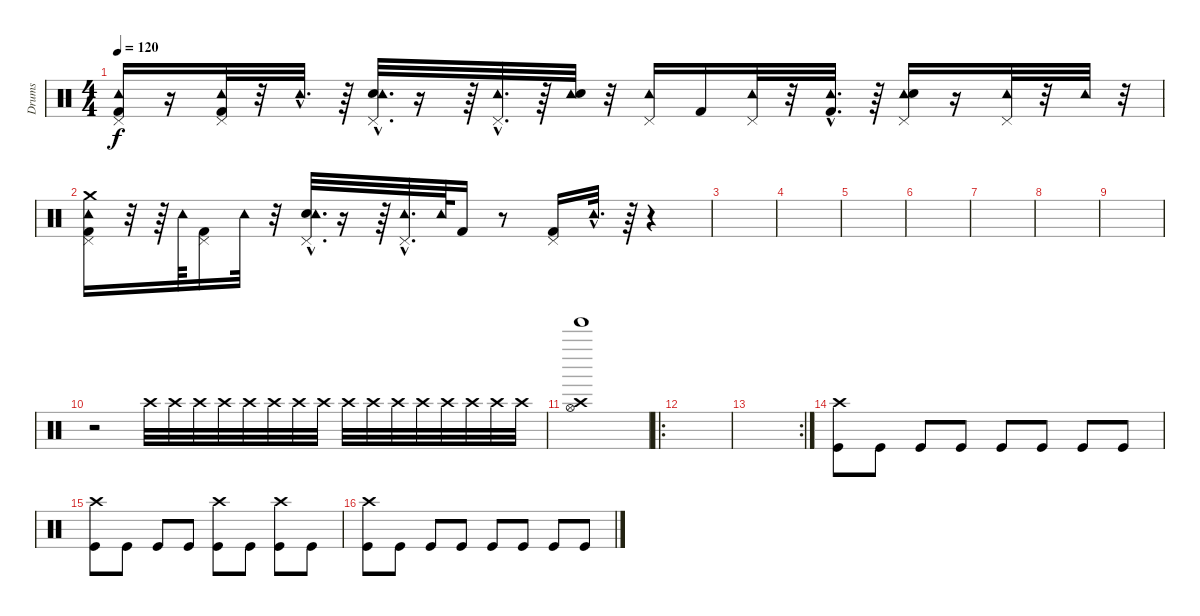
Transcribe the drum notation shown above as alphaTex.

\track ("Drums" "Drums") {instrument percussion}
\staff {score}
\articulation defaults
\ts (4 4)
\tempo 120
\clef neutral
\ks c
("Kick (hit) 2" "Pedal Hi-Hat (hit)" "Tambourine (hit)").16{dy f} r.16 ("Kick (hit) 2" "Pedal Hi-Hat (hit)" "Tambourine (hit)").32 r.32 "Tambourine (hit)"{hac}.32{d} r.64 ("Electric Snare (hit)"{hac} "Pedal Hi-Hat (hit)"{hac} "Tambourine (hit)"{hac}).32{d} r.16 r.64 ("Pedal Hi-Hat (hit)"{hac} "Tambourine (hit)"{hac}).32{d} r.64 ("Tambourine (hit)" "Electric Snare (hit)").32 r.32 ("Pedal Hi-Hat (hit)" "Tambourine (hit)").16 "Kick (hit) 2".16 ("Pedal Hi-Hat (hit)" "Tambourine (hit)").32 r.32 ("Tambourine (hit)"{hac} "Kick (hit) 2"{hac}).32{d} r.64 ("Pedal Hi-Hat (hit)" "Tambourine (hit)" "Electric Snare (hit)").16 r.16 ("Pedal Hi-Hat (hit)" "Tambourine (hit)").32 r.32 "Tambourine (hit)".32 r.32 |
("Tambourine (hit)" "Pedal Hi-Hat (hit)" "Kick (hit) 2" "Crash medium (hit)").16 r.32 r.64 "Tambourine (hit)".64 ("Kick (hit) 2" "Pedal Hi-Hat (hit)").16 "Tambourine (hit)".32 r.32 ("Electric Snare (hit)"{hac} "Pedal Hi-Hat (hit)"{hac} "Tambourine (hit)"{hac}).32{d} r.16 r.64 ("Pedal Hi-Hat (hit)"{hac} "Tambourine (hit)"{hac}).32{d} "Tambourine (hit)".64 "Kick (hit) 2".16 r.8 ("Kick (hit) 2" "Pedal Hi-Hat (hit)").16 "Tambourine (hit)"{hac}.32{d} r.64 r.4 |
|
|
|
|
|
|
|
r.2 "Crash high (hit)".32{volume 1} "Crash high (hit)".32 "Crash high (hit)".32{volume 2} "Crash high (hit)".32 "Crash high (hit)".32{volume 3} "Crash high (hit)".32{volume 4} "Crash high (hit)".32 "Crash high (hit)".32 "Crash high (hit)".32{volume 6} "Crash high (hit)".32 "Crash high (hit)".32{volume 7} "Crash high (hit)".32 "Crash high (hit)".32{volume 9} "Crash high (hit)".32 "Crash high (hit)".32{volume 10} "Crash high (hit)".32 |
("Tinkle Bell (hit)" "Crash high (hit)" "Hi-Hat (open)").1{volume 11} |
\ro
|
\rc 2
|
("Kick (hit)" "Crash high (hit)").8 "Kick (hit)".8 "Kick (hit)".8 "Kick (hit)".8 "Kick (hit)".8 "Kick (hit)".8 "Kick (hit)".8 "Kick (hit)".8 |
("Kick (hit)" "Crash high (hit)").8 "Kick (hit)".8 "Kick (hit)".8 "Kick (hit)".8 ("Kick (hit)" "Crash high (hit)").8 "Kick (hit)".8 ("Kick (hit)" "Crash high (hit)").8 "Kick (hit)".8 |
("Kick (hit)" "Crash high (hit)").8 "Kick (hit)".8 "Kick (hit)".8 "Kick (hit)".8 "Kick (hit)".8 "Kick (hit)".8 "Kick (hit)".8 "Kick (hit)".8
